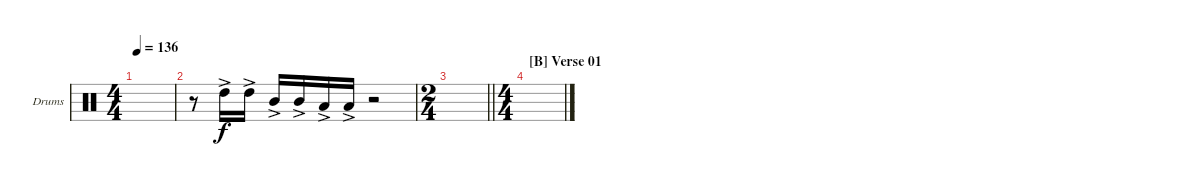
\bracketExtendMode groupsimilarinstruments
\firstSystemTrackNameOrientation horizontal
\otherSystemsTrackNameOrientation horizontal
\track ("Drumkit" "Drums") {instrument percussion}
\staff {score}
\articulation defaults
\ts (4 4)
\tempo 136
\clef neutral
\scale
0.333333
\ks c
|
\scale
0.333333 r.8 "High Tom (hit)"{ac}.16 "High Tom (hit)"{ac}.16 "Mid Tom (hit)"{ac}.16 "Mid Tom (hit)"{ac}.16 "Low Tom (hit)"{ac}.16 "Low Tom (hit)"{ac}.16 r.2 |
\ts (2 4)
\beaming (8 2 2)
\scale
0.391473
\barLineRight lightlight
|
\ts (4 4)
\beaming (8 2 2 2 2)
\section ("B" "Verse 01")
\scale
0.391473 |
\scale
0.217054 |
\scale
0.333333 |
\scale
0.333333 |
\scale
0.333333 |
\scale
0.333333 |
\scale
0.333333 |
\scale
0.333333 |
\scale
0.333333 |
\scale
0.333333 |
\scale
0.333333 |
\scale
0.333333 |
\scale
0.333333
